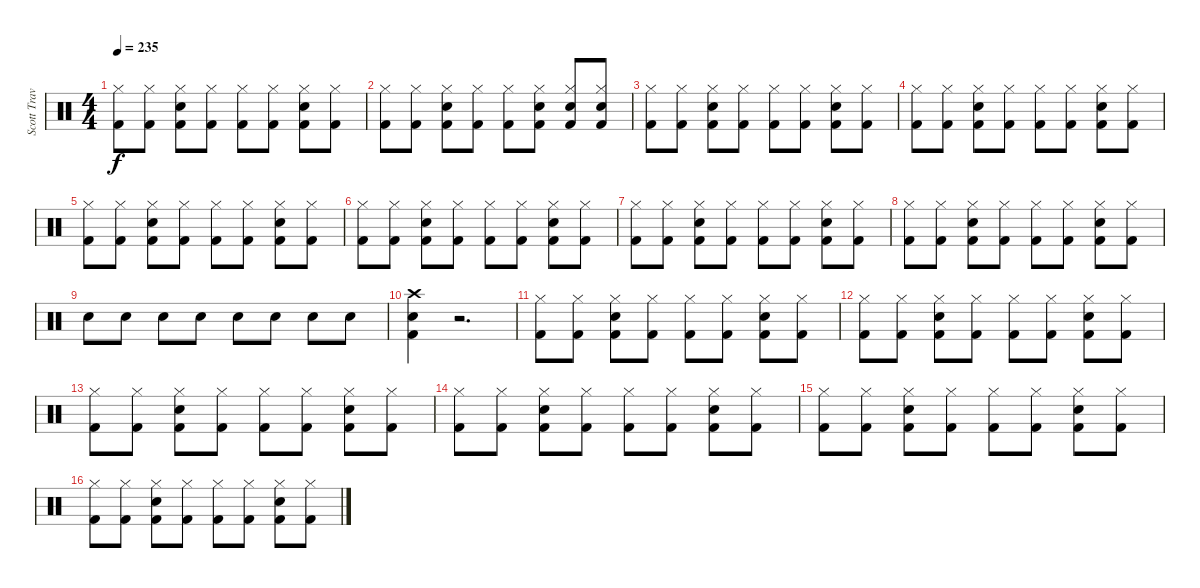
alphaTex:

\track ("Scott Travis" "Scott Trav") {instrument percussion}
\staff {score}
\articulation defaults
\ts (4 4)
\tempo 235
\clef neutral
\ks c
("Kick (hit) 2" "Hi-Hat (closed)").8{dy f} ("Kick (hit) 2" "Hi-Hat (closed)").8 ("Kick (hit) 2" "Snare (hit) 2" "Hi-Hat (closed)").8 ("Kick (hit) 2" "Hi-Hat (closed)").8 ("Kick (hit) 2" "Hi-Hat (closed)").8 ("Kick (hit) 2" "Hi-Hat (closed)").8 ("Kick (hit) 2" "Hi-Hat (closed)" "Snare (hit) 2").8 ("Kick (hit) 2" "Hi-Hat (closed)").8 |
("Kick (hit) 2" "Hi-Hat (closed)").8 ("Kick (hit) 2" "Hi-Hat (closed)").8 ("Kick (hit) 2" "Snare (hit) 2" "Hi-Hat (closed)").8 ("Kick (hit) 2" "Hi-Hat (closed)").8 ("Kick (hit) 2" "Hi-Hat (closed)").8 ("Kick (hit) 2" "Hi-Hat (closed)" "Snare (hit) 2").8 ("Kick (hit) 2" "Hi-Hat (closed)" "Snare (hit) 2").8 ("Kick (hit) 2" "Hi-Hat (closed)" "Snare (hit) 2").8 |
("Kick (hit) 2" "Hi-Hat (closed)").8 ("Kick (hit) 2" "Hi-Hat (closed)").8 ("Kick (hit) 2" "Snare (hit) 2" "Hi-Hat (closed)").8 ("Kick (hit) 2" "Hi-Hat (closed)").8 ("Kick (hit) 2" "Hi-Hat (closed)").8 ("Kick (hit) 2" "Hi-Hat (closed)").8 ("Kick (hit) 2" "Hi-Hat (closed)" "Snare (hit) 2").8 ("Kick (hit) 2" "Hi-Hat (closed)").8 |
("Kick (hit) 2" "Hi-Hat (closed)").8 ("Kick (hit) 2" "Hi-Hat (closed)").8 ("Kick (hit) 2" "Snare (hit) 2" "Hi-Hat (closed)").8 ("Kick (hit) 2" "Hi-Hat (closed)").8 ("Kick (hit) 2" "Hi-Hat (closed)").8 ("Kick (hit) 2" "Hi-Hat (closed)").8 ("Kick (hit) 2" "Hi-Hat (closed)" "Snare (hit) 2").8 ("Kick (hit) 2" "Hi-Hat (closed)").8 |
("Kick (hit) 2" "Hi-Hat (closed)").8 ("Kick (hit) 2" "Hi-Hat (closed)").8 ("Kick (hit) 2" "Snare (hit) 2" "Hi-Hat (closed)").8 ("Kick (hit) 2" "Hi-Hat (closed)").8 ("Kick (hit) 2" "Hi-Hat (closed)").8 ("Kick (hit) 2" "Hi-Hat (closed)").8 ("Kick (hit) 2" "Hi-Hat (closed)" "Snare (hit) 2").8 ("Kick (hit) 2" "Hi-Hat (closed)").8 |
("Kick (hit) 2" "Hi-Hat (closed)").8 ("Kick (hit) 2" "Hi-Hat (closed)").8 ("Kick (hit) 2" "Snare (hit) 2" "Hi-Hat (closed)").8 ("Kick (hit) 2" "Hi-Hat (closed)").8 ("Kick (hit) 2" "Hi-Hat (closed)").8 ("Kick (hit) 2" "Hi-Hat (closed)").8 ("Kick (hit) 2" "Hi-Hat (closed)" "Snare (hit) 2").8 ("Kick (hit) 2" "Hi-Hat (closed)").8 |
("Kick (hit) 2" "Hi-Hat (closed)").8 ("Kick (hit) 2" "Hi-Hat (closed)").8 ("Kick (hit) 2" "Snare (hit) 2" "Hi-Hat (closed)").8 ("Kick (hit) 2" "Hi-Hat (closed)").8 ("Kick (hit) 2" "Hi-Hat (closed)").8 ("Kick (hit) 2" "Hi-Hat (closed)").8 ("Kick (hit) 2" "Hi-Hat (closed)" "Snare (hit) 2").8 ("Kick (hit) 2" "Hi-Hat (closed)").8 |
("Kick (hit) 2" "Hi-Hat (closed)").8 ("Kick (hit) 2" "Hi-Hat (closed)").8 ("Kick (hit) 2" "Snare (hit) 2" "Hi-Hat (closed)").8 ("Kick (hit) 2" "Hi-Hat (closed)").8 ("Kick (hit) 2" "Hi-Hat (closed)").8 ("Kick (hit) 2" "Hi-Hat (closed)").8 ("Kick (hit) 2" "Hi-Hat (closed)" "Snare (hit) 2").8 ("Kick (hit) 2" "Hi-Hat (closed)").8 |
"Snare (hit) 2".8 "Snare (hit) 2".8 "Snare (hit) 2".8 "Snare (hit) 2".8 "Snare (hit) 2".8 "Snare (hit) 2".8 "Snare (hit) 2".8 "Snare (hit) 2".8 |
("Snare (hit) 2" "Kick (hit) 2" "Crash high (hit)").4 r.2{d} |
("Kick (hit) 2" "Hi-Hat (closed)").8 ("Kick (hit) 2" "Hi-Hat (closed)").8 ("Kick (hit) 2" "Snare (hit) 2" "Hi-Hat (closed)").8 ("Kick (hit) 2" "Hi-Hat (closed)").8 ("Kick (hit) 2" "Hi-Hat (closed)").8 ("Kick (hit) 2" "Hi-Hat (closed)").8 ("Kick (hit) 2" "Hi-Hat (closed)" "Snare (hit) 2").8 ("Kick (hit) 2" "Hi-Hat (closed)").8 |
("Kick (hit) 2" "Hi-Hat (closed)").8 ("Kick (hit) 2" "Hi-Hat (closed)").8 ("Kick (hit) 2" "Snare (hit) 2" "Hi-Hat (closed)").8 ("Kick (hit) 2" "Hi-Hat (closed)").8 ("Kick (hit) 2" "Hi-Hat (closed)").8 ("Kick (hit) 2" "Hi-Hat (closed)").8 ("Kick (hit) 2" "Hi-Hat (closed)" "Snare (hit) 2").8 ("Kick (hit) 2" "Hi-Hat (closed)").8 |
("Kick (hit) 2" "Hi-Hat (closed)").8 ("Kick (hit) 2" "Hi-Hat (closed)").8 ("Kick (hit) 2" "Snare (hit) 2" "Hi-Hat (closed)").8 ("Kick (hit) 2" "Hi-Hat (closed)").8 ("Kick (hit) 2" "Hi-Hat (closed)").8 ("Kick (hit) 2" "Hi-Hat (closed)").8 ("Kick (hit) 2" "Hi-Hat (closed)" "Snare (hit) 2").8 ("Kick (hit) 2" "Hi-Hat (closed)").8 |
("Kick (hit) 2" "Hi-Hat (closed)").8 ("Kick (hit) 2" "Hi-Hat (closed)").8 ("Kick (hit) 2" "Snare (hit) 2" "Hi-Hat (closed)").8 ("Kick (hit) 2" "Hi-Hat (closed)").8 ("Kick (hit) 2" "Hi-Hat (closed)").8 ("Kick (hit) 2" "Hi-Hat (closed)").8 ("Kick (hit) 2" "Hi-Hat (closed)" "Snare (hit) 2").8 ("Kick (hit) 2" "Hi-Hat (closed)").8 |
("Kick (hit) 2" "Hi-Hat (closed)").8 ("Kick (hit) 2" "Hi-Hat (closed)").8 ("Kick (hit) 2" "Snare (hit) 2" "Hi-Hat (closed)").8 ("Kick (hit) 2" "Hi-Hat (closed)").8 ("Kick (hit) 2" "Hi-Hat (closed)").8 ("Kick (hit) 2" "Hi-Hat (closed)").8 ("Kick (hit) 2" "Hi-Hat (closed)" "Snare (hit) 2").8 ("Kick (hit) 2" "Hi-Hat (closed)").8 |
("Kick (hit) 2" "Hi-Hat (closed)").8 ("Kick (hit) 2" "Hi-Hat (closed)").8 ("Kick (hit) 2" "Snare (hit) 2" "Hi-Hat (closed)").8 ("Kick (hit) 2" "Hi-Hat (closed)").8 ("Kick (hit) 2" "Hi-Hat (closed)").8 ("Kick (hit) 2" "Hi-Hat (closed)").8 ("Kick (hit) 2" "Hi-Hat (closed)" "Snare (hit) 2").8 ("Kick (hit) 2" "Hi-Hat (closed)").8
